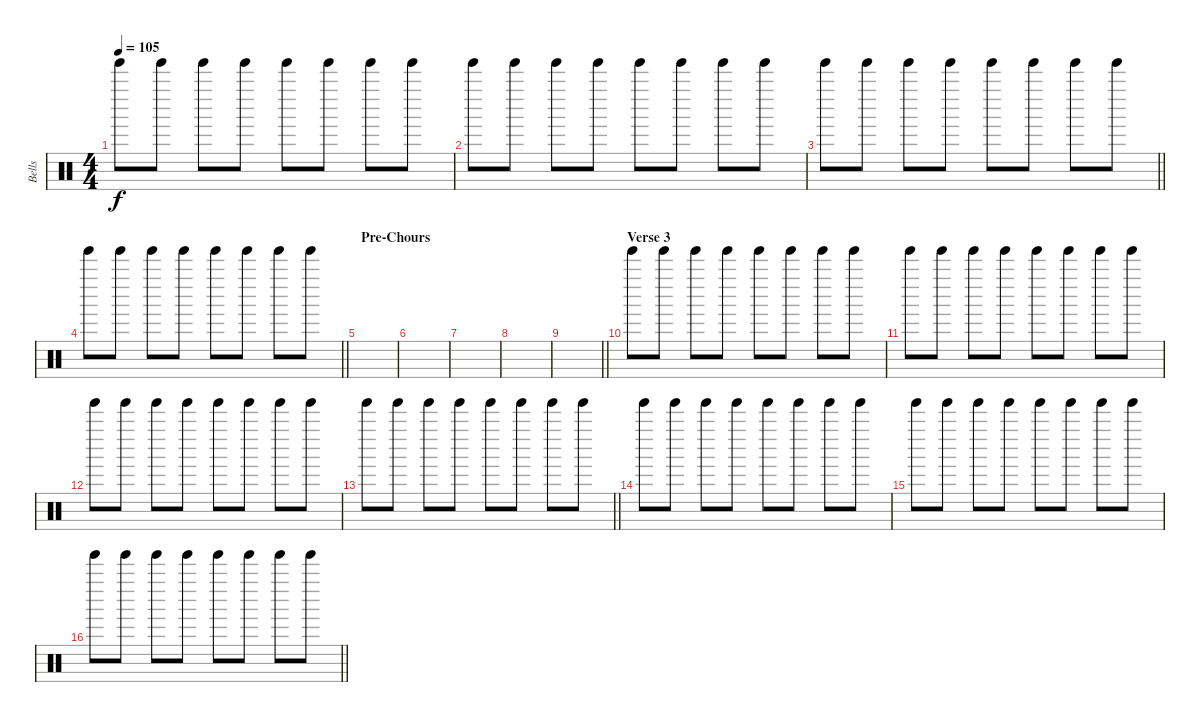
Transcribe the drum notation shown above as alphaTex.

\track ("Bells" "Bells") {instrument percussion}
\staff {score}
\articulation defaults
\ts (4 4)
\tempo 105
\clef neutral
\ks c "Tinkle Bell (hit)".8{dy f} "Tinkle Bell (hit)".8 "Tinkle Bell (hit)".8 "Tinkle Bell (hit)".8 "Tinkle Bell (hit)".8 "Tinkle Bell (hit)".8 "Tinkle Bell (hit)".8 "Tinkle Bell (hit)".8
|
"Tinkle Bell (hit)".8 "Tinkle Bell (hit)".8 "Tinkle Bell (hit)".8 "Tinkle Bell (hit)".8 "Tinkle Bell (hit)".8 "Tinkle Bell (hit)".8 "Tinkle Bell (hit)".8 "Tinkle Bell (hit)".8 |
\barLineRight lightlight "Tinkle Bell (hit)".8 "Tinkle Bell (hit)".8 "Tinkle Bell (hit)".8 "Tinkle Bell (hit)".8 "Tinkle Bell (hit)".8 "Tinkle Bell (hit)".8 "Tinkle Bell (hit)".8 "Tinkle Bell (hit)".8
|
\barLineRight lightlight "Tinkle Bell (hit)".8 "Tinkle Bell (hit)".8 "Tinkle Bell (hit)".8 "Tinkle Bell (hit)".8 "Tinkle Bell (hit)".8 "Tinkle Bell (hit)".8 "Tinkle Bell (hit)".8 "Tinkle Bell (hit)".8
|
\section ("" "Pre-Chours")
|
|
|
|
\barLineRight lightlight
|
\section ("" "Verse 3")
"Tinkle Bell (hit)".8 "Tinkle Bell (hit)".8 "Tinkle Bell (hit)".8 "Tinkle Bell (hit)".8 "Tinkle Bell (hit)".8 "Tinkle Bell (hit)".8 "Tinkle Bell (hit)".8 "Tinkle Bell (hit)".8 |
"Tinkle Bell (hit)".8 "Tinkle Bell (hit)".8 "Tinkle Bell (hit)".8 "Tinkle Bell (hit)".8 "Tinkle Bell (hit)".8 "Tinkle Bell (hit)".8 "Tinkle Bell (hit)".8 "Tinkle Bell (hit)".8 |
"Tinkle Bell (hit)".8 "Tinkle Bell (hit)".8 "Tinkle Bell (hit)".8 "Tinkle Bell (hit)".8 "Tinkle Bell (hit)".8 "Tinkle Bell (hit)".8 "Tinkle Bell (hit)".8 "Tinkle Bell (hit)".8 |
\barLineRight lightlight "Tinkle Bell (hit)".8 "Tinkle Bell (hit)".8 "Tinkle Bell (hit)".8 "Tinkle Bell (hit)".8 "Tinkle Bell (hit)".8 "Tinkle Bell (hit)".8 "Tinkle Bell (hit)".8 "Tinkle Bell (hit)".8
|
"Tinkle Bell (hit)".8 "Tinkle Bell (hit)".8 "Tinkle Bell (hit)".8 "Tinkle Bell (hit)".8 "Tinkle Bell (hit)".8 "Tinkle Bell (hit)".8 "Tinkle Bell (hit)".8 "Tinkle Bell (hit)".8 |
"Tinkle Bell (hit)".8 "Tinkle Bell (hit)".8 "Tinkle Bell (hit)".8 "Tinkle Bell (hit)".8 "Tinkle Bell (hit)".8 "Tinkle Bell (hit)".8 "Tinkle Bell (hit)".8 "Tinkle Bell (hit)".8 |
\barLineRight lightlight "Tinkle Bell (hit)".8 "Tinkle Bell (hit)".8 "Tinkle Bell (hit)".8 "Tinkle Bell (hit)".8 "Tinkle Bell (hit)".8 "Tinkle Bell (hit)".8 "Tinkle Bell (hit)".8 "Tinkle Bell (hit)".8
